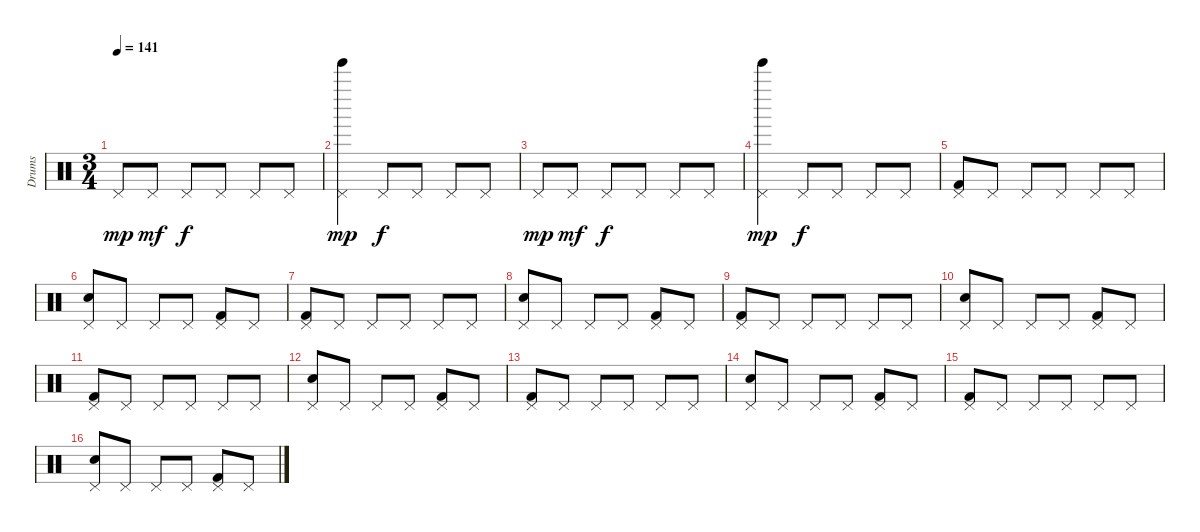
\track ("Drums" "Drums") {instrument percussion}
\staff {score}
\articulation defaults
\ts (3 4)
\tempo 141
\clef neutral
\ks c "Pedal Hi-Hat (hit)".8{dy mp} "Pedal Hi-Hat (hit)".8{dy mf} "Pedal Hi-Hat (hit)".8{dy f} "Pedal Hi-Hat (hit)".8 "Pedal Hi-Hat (hit)".8 "Pedal Hi-Hat (hit)".8
|
("Pedal Hi-Hat (hit)" "Tinkle Bell (hit)").4{dy mp} "Pedal Hi-Hat (hit)".8{dy f} "Pedal Hi-Hat (hit)".8 "Pedal Hi-Hat (hit)".8 "Pedal Hi-Hat (hit)".8 |
"Pedal Hi-Hat (hit)".8{dy mp} "Pedal Hi-Hat (hit)".8{dy mf} "Pedal Hi-Hat (hit)".8{dy f} "Pedal Hi-Hat (hit)".8 "Pedal Hi-Hat (hit)".8 "Pedal Hi-Hat (hit)".8 |
("Pedal Hi-Hat (hit)" "Tinkle Bell (hit)").4{dy mp} "Pedal Hi-Hat (hit)".8{dy f} "Pedal Hi-Hat (hit)".8 "Pedal Hi-Hat (hit)".8 "Pedal Hi-Hat (hit)".8 |
("Pedal Hi-Hat (hit)" "Kick (hit) 2").8 "Pedal Hi-Hat (hit)".8 "Pedal Hi-Hat (hit)".8 "Pedal Hi-Hat (hit)".8 "Pedal Hi-Hat (hit)".8 "Pedal Hi-Hat (hit)".8 |
("Pedal Hi-Hat (hit)" "Electric Snare (hit)").8 "Pedal Hi-Hat (hit)".8 "Pedal Hi-Hat (hit)".8 "Pedal Hi-Hat (hit)".8 ("Pedal Hi-Hat (hit)" "Kick (hit) 2").8 "Pedal Hi-Hat (hit)".8 |
("Pedal Hi-Hat (hit)" "Kick (hit) 2").8 "Pedal Hi-Hat (hit)".8 "Pedal Hi-Hat (hit)".8 "Pedal Hi-Hat (hit)".8 "Pedal Hi-Hat (hit)".8 "Pedal Hi-Hat (hit)".8 |
("Pedal Hi-Hat (hit)" "Electric Snare (hit)").8 "Pedal Hi-Hat (hit)".8 "Pedal Hi-Hat (hit)".8 "Pedal Hi-Hat (hit)".8 ("Pedal Hi-Hat (hit)" "Kick (hit) 2").8 "Pedal Hi-Hat (hit)".8 |
("Pedal Hi-Hat (hit)" "Kick (hit) 2").8 "Pedal Hi-Hat (hit)".8 "Pedal Hi-Hat (hit)".8 "Pedal Hi-Hat (hit)".8 "Pedal Hi-Hat (hit)".8 "Pedal Hi-Hat (hit)".8 |
("Pedal Hi-Hat (hit)" "Electric Snare (hit)").8 "Pedal Hi-Hat (hit)".8 "Pedal Hi-Hat (hit)".8 "Pedal Hi-Hat (hit)".8 ("Pedal Hi-Hat (hit)" "Kick (hit) 2").8 "Pedal Hi-Hat (hit)".8 |
("Pedal Hi-Hat (hit)" "Kick (hit) 2").8 "Pedal Hi-Hat (hit)".8 "Pedal Hi-Hat (hit)".8 "Pedal Hi-Hat (hit)".8 "Pedal Hi-Hat (hit)".8 "Pedal Hi-Hat (hit)".8 |
("Pedal Hi-Hat (hit)" "Electric Snare (hit)").8 "Pedal Hi-Hat (hit)".8 "Pedal Hi-Hat (hit)".8 "Pedal Hi-Hat (hit)".8 ("Pedal Hi-Hat (hit)" "Kick (hit) 2").8 "Pedal Hi-Hat (hit)".8 |
("Pedal Hi-Hat (hit)" "Kick (hit) 2").8 "Pedal Hi-Hat (hit)".8 "Pedal Hi-Hat (hit)".8 "Pedal Hi-Hat (hit)".8 "Pedal Hi-Hat (hit)".8 "Pedal Hi-Hat (hit)".8 |
("Pedal Hi-Hat (hit)" "Electric Snare (hit)").8 "Pedal Hi-Hat (hit)".8 "Pedal Hi-Hat (hit)".8 "Pedal Hi-Hat (hit)".8 ("Pedal Hi-Hat (hit)" "Kick (hit) 2").8 "Pedal Hi-Hat (hit)".8 |
("Pedal Hi-Hat (hit)" "Kick (hit) 2").8 "Pedal Hi-Hat (hit)".8 "Pedal Hi-Hat (hit)".8 "Pedal Hi-Hat (hit)".8 "Pedal Hi-Hat (hit)".8 "Pedal Hi-Hat (hit)".8 |
("Pedal Hi-Hat (hit)" "Electric Snare (hit)").8 "Pedal Hi-Hat (hit)".8 "Pedal Hi-Hat (hit)".8 "Pedal Hi-Hat (hit)".8 ("Pedal Hi-Hat (hit)" "Kick (hit) 2").8 "Pedal Hi-Hat (hit)".8
